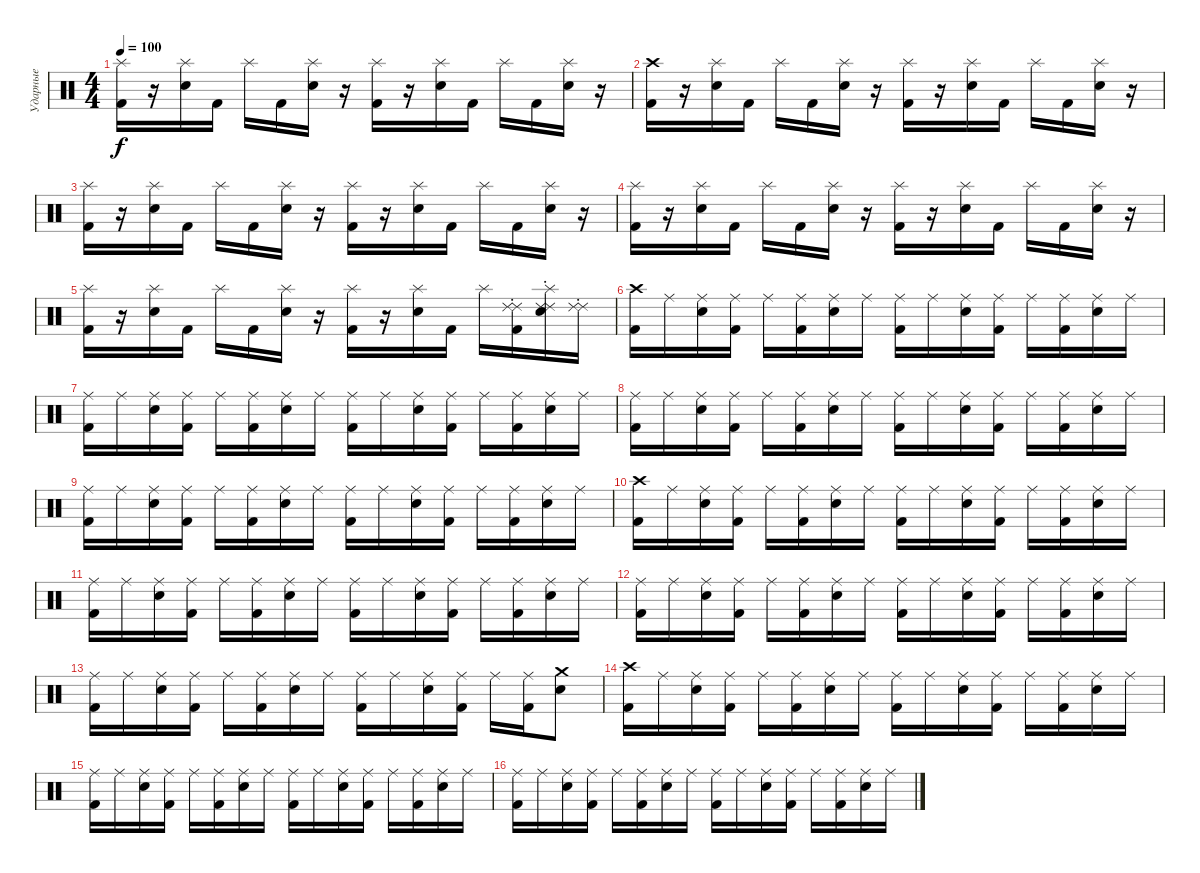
\track ("Ударные" "Ударные") {instrument percussion}
\staff {score}
\articulation defaults
\ts (4 4)
\tempo 100
\clef neutral
\ks c
("Splash (hit)" "Kick (hit) 2").16{dy f} r.16 ("Splash (hit)" "Electric Snare (hit)").16 "Kick (hit) 2".16 "Splash (hit)".16 "Kick (hit) 2".16 ("Splash (hit)" "Electric Snare (hit)").16 r.16 ("Splash (hit)" "Kick (hit) 2").16 r.16 ("Splash (hit)" "Electric Snare (hit)").16 "Kick (hit) 2".16 "Splash (hit)".16 "Kick (hit) 2".16 ("Splash (hit)" "Electric Snare (hit)").16 r.16 |
("Crash high (hit)" "Kick (hit) 2").16 r.16 ("Splash (hit)" "Electric Snare (hit)").16 "Kick (hit) 2".16 "Splash (hit)".16 "Kick (hit) 2".16 ("Splash (hit)" "Electric Snare (hit)").16 r.16 ("Splash (hit)" "Kick (hit) 2").16 r.16 ("Splash (hit)" "Electric Snare (hit)").16 "Kick (hit) 2".16 "Splash (hit)".16 "Kick (hit) 2".16 ("Splash (hit)" "Electric Snare (hit)").16 r.16 |
("Splash (hit)" "Kick (hit) 2").16 r.16 ("Splash (hit)" "Electric Snare (hit)").16 "Kick (hit) 2".16 "Splash (hit)".16 "Kick (hit) 2".16 ("Splash (hit)" "Electric Snare (hit)").16 r.16 ("Splash (hit)" "Kick (hit) 2").16 r.16 ("Splash (hit)" "Electric Snare (hit)").16 "Kick (hit) 2".16 "Splash (hit)".16 "Kick (hit) 2".16 ("Splash (hit)" "Electric Snare (hit)").16 r.16 |
("Splash (hit)" "Kick (hit) 2").16 r.16 ("Splash (hit)" "Electric Snare (hit)").16 "Kick (hit) 2".16 "Splash (hit)".16 "Kick (hit) 2".16 ("Splash (hit)" "Electric Snare (hit)").16 r.16 ("Splash (hit)" "Kick (hit) 2").16 r.16 ("Splash (hit)" "Electric Snare (hit)").16 "Kick (hit) 2".16 "Splash (hit)".16 "Kick (hit) 2".16 ("Splash (hit)" "Electric Snare (hit)").16 r.16 |
("Splash (hit)" "Kick (hit) 2").16 r.16 ("Splash (hit)" "Electric Snare (hit)").16 "Kick (hit) 2".16 "Splash (hit)".16 "Kick (hit) 2".16 ("Splash (hit)" "Electric Snare (hit)").16 r.16 ("Splash (hit)" "Kick (hit) 2").16 r.16 ("Splash (hit)" "Electric Snare (hit)").16 "Kick (hit) 2".16 "Splash (hit)".16 ("Ride (choke) 2" "Ride (choke) 2" "Kick (hit) 2").16 ("Splash (hit)" "Ride (choke) 2" "Ride (choke) 2" "Electric Snare (hit)").16 ("Ride (choke) 2" "Ride (choke) 2").16 |
("Crash high (hit)" "Kick (hit) 2").16 "Ride (middle)".16 ("Ride (middle)" "Electric Snare (hit)").16 ("Ride (middle)" "Kick (hit) 2").16 "Ride (middle)".16 ("Ride (middle)" "Kick (hit) 2").16 ("Ride (middle)" "Electric Snare (hit)").16 "Ride (middle)".16 ("Ride (middle)" "Kick (hit) 2").16 "Ride (middle)".16 ("Ride (middle)" "Electric Snare (hit)").16 ("Ride (middle)" "Kick (hit) 2").16 "Ride (middle)".16 ("Ride (middle)" "Kick (hit) 2").16 ("Ride (middle)" "Electric Snare (hit)").16 "Ride (middle)".16 |
("Ride (middle)" "Kick (hit) 2").16 "Ride (middle)".16 ("Ride (middle)" "Electric Snare (hit)").16 ("Ride (middle)" "Kick (hit) 2").16 "Ride (middle)".16 ("Ride (middle)" "Kick (hit) 2").16 ("Ride (middle)" "Electric Snare (hit)").16 "Ride (middle)".16 ("Ride (middle)" "Kick (hit) 2").16 "Ride (middle)".16 ("Ride (middle)" "Electric Snare (hit)").16 ("Ride (middle)" "Kick (hit) 2").16 "Ride (middle)".16 ("Ride (middle)" "Kick (hit) 2").16 ("Ride (middle)" "Electric Snare (hit)").16 "Ride (middle)".16 |
("Ride (middle)" "Kick (hit) 2").16 "Ride (middle)".16 ("Ride (middle)" "Electric Snare (hit)").16 ("Ride (middle)" "Kick (hit) 2").16 "Ride (middle)".16 ("Ride (middle)" "Kick (hit) 2").16 ("Ride (middle)" "Electric Snare (hit)").16 "Ride (middle)".16 ("Ride (middle)" "Kick (hit) 2").16 "Ride (middle)".16 ("Ride (middle)" "Electric Snare (hit)").16 ("Ride (middle)" "Kick (hit) 2").16 "Ride (middle)".16 ("Ride (middle)" "Kick (hit) 2").16 ("Ride (middle)" "Electric Snare (hit)").16 "Ride (middle)".16 |
("Ride (middle)" "Kick (hit) 2").16 "Ride (middle)".16 ("Ride (middle)" "Electric Snare (hit)").16 ("Ride (middle)" "Kick (hit) 2").16 "Ride (middle)".16 ("Ride (middle)" "Kick (hit) 2").16 ("Ride (middle)" "Electric Snare (hit)").16 "Ride (middle)".16 ("Ride (middle)" "Kick (hit) 2").16 "Ride (middle)".16 ("Ride (middle)" "Electric Snare (hit)").16 ("Ride (middle)" "Kick (hit) 2").16 "Ride (middle)".16 ("Ride (middle)" "Kick (hit) 2").16 ("Ride (middle)" "Electric Snare (hit)").16 "Ride (middle)".16 |
("Crash high (hit)" "Kick (hit) 2").16 "Ride (middle)".16 ("Ride (middle)" "Electric Snare (hit)").16 ("Ride (middle)" "Kick (hit) 2").16 "Ride (middle)".16 ("Ride (middle)" "Kick (hit) 2").16 ("Ride (middle)" "Electric Snare (hit)").16 "Ride (middle)".16 ("Ride (middle)" "Kick (hit) 2").16 "Ride (middle)".16 ("Ride (middle)" "Electric Snare (hit)").16 ("Ride (middle)" "Kick (hit) 2").16 "Ride (middle)".16 ("Ride (middle)" "Kick (hit) 2").16 ("Ride (middle)" "Electric Snare (hit)").16 "Ride (middle)".16 |
("Ride (middle)" "Kick (hit) 2").16 "Ride (middle)".16 ("Ride (middle)" "Electric Snare (hit)").16 ("Ride (middle)" "Kick (hit) 2").16 "Ride (middle)".16 ("Ride (middle)" "Kick (hit) 2").16 ("Ride (middle)" "Electric Snare (hit)").16 "Ride (middle)".16 ("Ride (middle)" "Kick (hit) 2").16 "Ride (middle)".16 ("Ride (middle)" "Electric Snare (hit)").16 ("Ride (middle)" "Kick (hit) 2").16 "Ride (middle)".16 ("Ride (middle)" "Kick (hit) 2").16 ("Ride (middle)" "Electric Snare (hit)").16 "Ride (middle)".16 |
("Ride (middle)" "Kick (hit) 2").16 "Ride (middle)".16 ("Ride (middle)" "Electric Snare (hit)").16 ("Ride (middle)" "Kick (hit) 2").16 "Ride (middle)".16 ("Ride (middle)" "Kick (hit) 2").16 ("Ride (middle)" "Electric Snare (hit)").16 "Ride (middle)".16 ("Ride (middle)" "Kick (hit) 2").16 "Ride (middle)".16 ("Ride (middle)" "Electric Snare (hit)").16 ("Ride (middle)" "Kick (hit) 2").16 "Ride (middle)".16 ("Ride (middle)" "Kick (hit) 2").16 ("Ride (middle)" "Electric Snare (hit)").16 "Ride (middle)".16 |
("Ride (middle)" "Kick (hit) 2").16 "Ride (middle)".16 ("Ride (middle)" "Electric Snare (hit)").16 ("Ride (middle)" "Kick (hit) 2").16 "Ride (middle)".16 ("Ride (middle)" "Kick (hit) 2").16 ("Ride (middle)" "Electric Snare (hit)").16 "Ride (middle)".16 ("Ride (middle)" "Kick (hit) 2").16 "Ride (middle)".16 ("Ride (middle)" "Electric Snare (hit)").16 ("Ride (middle)" "Kick (hit) 2").16 "Ride (middle)".16 ("Ride (middle)" "Kick (hit) 2").16 ("Crash medium (hit)" "Electric Snare (hit)").8 |
("Crash high (hit)" "Kick (hit) 2").16 "Ride (middle)".16 ("Ride (middle)" "Electric Snare (hit)").16 ("Ride (middle)" "Kick (hit) 2").16 "Ride (middle)".16 ("Ride (middle)" "Kick (hit) 2").16 ("Ride (middle)" "Electric Snare (hit)").16 "Ride (middle)".16 ("Ride (middle)" "Kick (hit) 2").16 "Ride (middle)".16 ("Ride (middle)" "Electric Snare (hit)").16 ("Ride (middle)" "Kick (hit) 2").16 "Ride (middle)".16 ("Ride (middle)" "Kick (hit) 2").16 ("Ride (middle)" "Electric Snare (hit)").16 "Ride (middle)".16 |
("Ride (middle)" "Kick (hit) 2").16 "Ride (middle)".16 ("Ride (middle)" "Electric Snare (hit)").16 ("Ride (middle)" "Kick (hit) 2").16 "Ride (middle)".16 ("Ride (middle)" "Kick (hit) 2").16 ("Ride (middle)" "Electric Snare (hit)").16 "Ride (middle)".16 ("Ride (middle)" "Kick (hit) 2").16 "Ride (middle)".16 ("Ride (middle)" "Electric Snare (hit)").16 ("Ride (middle)" "Kick (hit) 2").16 "Ride (middle)".16 ("Ride (middle)" "Kick (hit) 2").16 ("Ride (middle)" "Electric Snare (hit)").16 "Ride (middle)".16 |
("Ride (middle)" "Kick (hit) 2").16 "Ride (middle)".16 ("Ride (middle)" "Electric Snare (hit)").16 ("Ride (middle)" "Kick (hit) 2").16 "Ride (middle)".16 ("Ride (middle)" "Kick (hit) 2").16 ("Ride (middle)" "Electric Snare (hit)").16 "Ride (middle)".16 ("Ride (middle)" "Kick (hit) 2").16 "Ride (middle)".16 ("Ride (middle)" "Electric Snare (hit)").16 ("Ride (middle)" "Kick (hit) 2").16 "Ride (middle)".16 ("Ride (middle)" "Kick (hit) 2").16 ("Ride (middle)" "Electric Snare (hit)").16 "Ride (middle)".16
